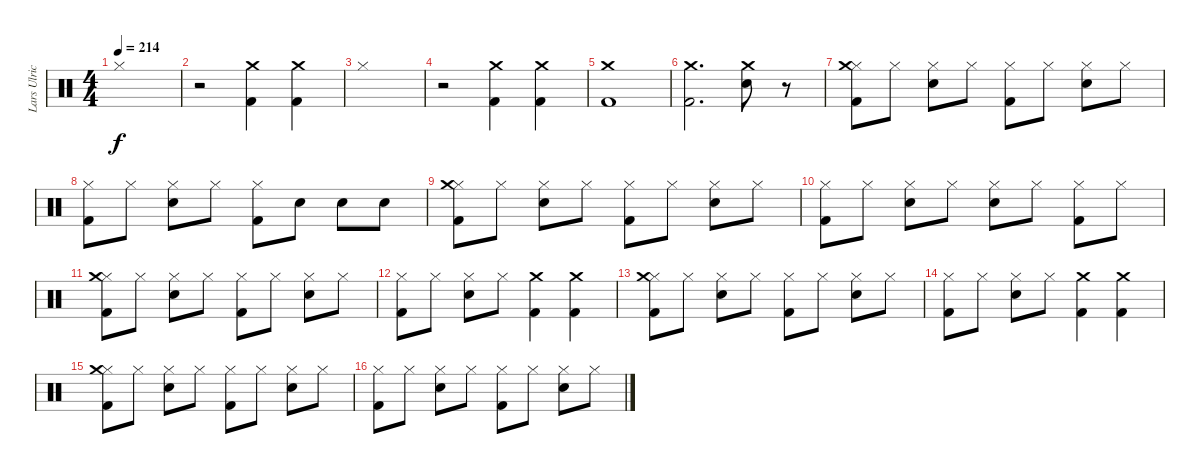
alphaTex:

\track ("Lars Ulrich" "Lars Ulric") {instrument percussion}
\staff {score}
\articulation defaults
\ts (4 4)
\tempo 214
\clef neutral
\ks c "Hi-Hat (closed)".1{dy f}
|
r.2 ("Kick (hit) 2" "Crash medium (hit)").4 ("Kick (hit) 2" "Crash medium (hit)").4 |
"Hi-Hat (closed)".1 |
r.2 ("Kick (hit) 2" "Crash medium (hit)").4 ("Kick (hit) 2" "Crash medium (hit)").4 |
("Kick (hit) 2" "Crash medium (hit)").1 |
("Kick (hit) 2" "Crash medium (hit)").2{d} ("Snare (hit) 2" "Crash medium (hit)").8 r.8 |
("Hi-Hat (closed)" "Kick (hit) 2" "Crash medium (hit)").8 "Hi-Hat (closed)".8 ("Hi-Hat (closed)" "Snare (hit) 2").8 "Hi-Hat (closed)".8 ("Hi-Hat (closed)" "Kick (hit) 2").8 "Hi-Hat (closed)".8 ("Hi-Hat (closed)" "Snare (hit) 2").8 "Hi-Hat (closed)".8 |
("Hi-Hat (closed)" "Kick (hit) 2").8 "Hi-Hat (closed)".8 ("Hi-Hat (closed)" "Snare (hit) 2").8 "Hi-Hat (closed)".8 ("Hi-Hat (closed)" "Kick (hit) 2").8 "Snare (hit) 2".8 "Snare (hit) 2".8 "Snare (hit) 2".8 |
("Hi-Hat (closed)" "Kick (hit) 2" "Crash medium (hit)").8 "Hi-Hat (closed)".8 ("Hi-Hat (closed)" "Snare (hit) 2").8 "Hi-Hat (closed)".8 ("Hi-Hat (closed)" "Kick (hit) 2").8 "Hi-Hat (closed)".8 ("Hi-Hat (closed)" "Snare (hit) 2").8 "Hi-Hat (closed)".8 |
("Hi-Hat (closed)" "Kick (hit) 2").8 "Hi-Hat (closed)".8 ("Hi-Hat (closed)" "Snare (hit) 2").8 "Hi-Hat (closed)".8 ("Hi-Hat (closed)" "Snare (hit) 2").8 "Hi-Hat (closed)".8 ("Hi-Hat (closed)" "Kick (hit) 2").8 "Hi-Hat (closed)".8 |
("Hi-Hat (closed)" "Kick (hit) 2" "Crash medium (hit)").8 "Hi-Hat (closed)".8 ("Hi-Hat (closed)" "Snare (hit) 2").8 "Hi-Hat (closed)".8 ("Hi-Hat (closed)" "Kick (hit) 2").8 "Hi-Hat (closed)".8 ("Hi-Hat (closed)" "Snare (hit) 2").8 "Hi-Hat (closed)".8 |
("Hi-Hat (closed)" "Kick (hit) 2").8 "Hi-Hat (closed)".8 ("Hi-Hat (closed)" "Snare (hit) 2").8 "Hi-Hat (closed)".8 ("Kick (hit) 2" "Crash medium (hit)").4 ("Kick (hit) 2" "Crash medium (hit)").4 |
("Hi-Hat (closed)" "Kick (hit) 2" "Crash medium (hit)").8 "Hi-Hat (closed)".8 ("Hi-Hat (closed)" "Snare (hit) 2").8 "Hi-Hat (closed)".8 ("Hi-Hat (closed)" "Kick (hit) 2").8 "Hi-Hat (closed)".8 ("Hi-Hat (closed)" "Snare (hit) 2").8 "Hi-Hat (closed)".8 |
("Hi-Hat (closed)" "Kick (hit) 2").8 "Hi-Hat (closed)".8 ("Hi-Hat (closed)" "Snare (hit) 2").8 "Hi-Hat (closed)".8 ("Kick (hit) 2" "Crash medium (hit)").4 ("Kick (hit) 2" "Crash medium (hit)").4 |
("Hi-Hat (closed)" "Kick (hit) 2" "Crash medium (hit)").8 "Hi-Hat (closed)".8 ("Hi-Hat (closed)" "Snare (hit) 2").8 "Hi-Hat (closed)".8 ("Hi-Hat (closed)" "Kick (hit) 2").8 "Hi-Hat (closed)".8 ("Hi-Hat (closed)" "Snare (hit) 2").8 "Hi-Hat (closed)".8 |
("Hi-Hat (closed)" "Kick (hit) 2").8 "Hi-Hat (closed)".8 ("Hi-Hat (closed)" "Snare (hit) 2").8 "Hi-Hat (closed)".8 ("Hi-Hat (closed)" "Kick (hit) 2").8 "Hi-Hat (closed)".8 ("Hi-Hat (closed)" "Snare (hit) 2").8 "Hi-Hat (closed)".8
